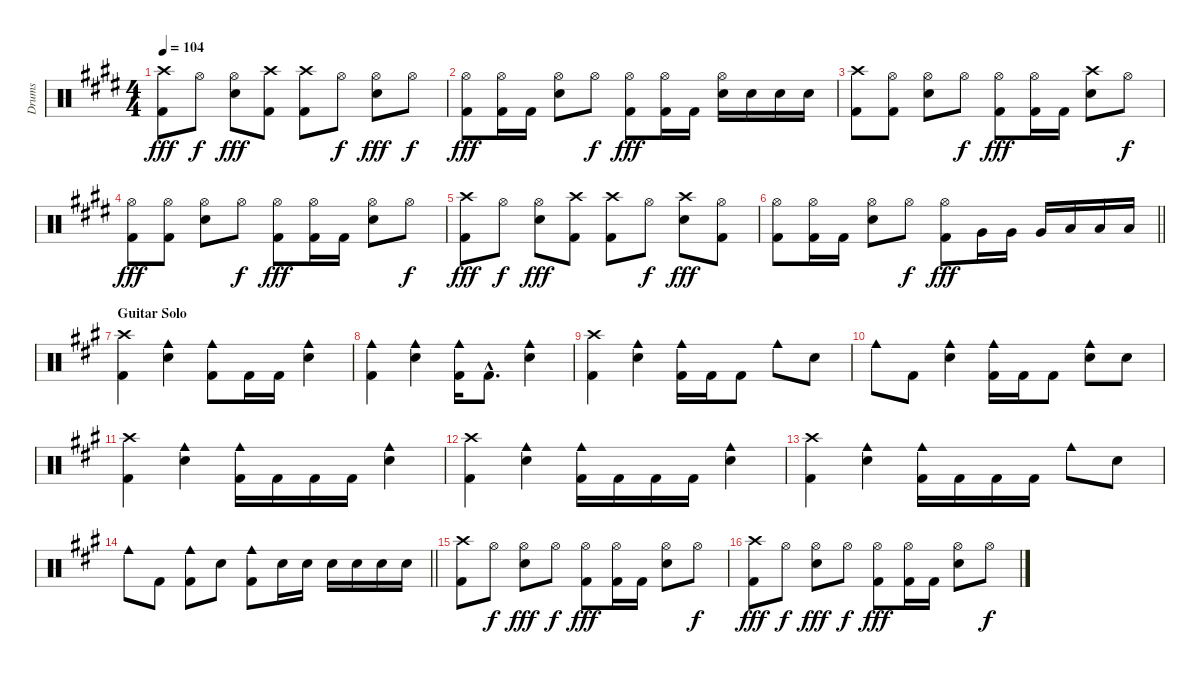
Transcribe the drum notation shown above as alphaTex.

\track ("Drums" "Drums") {instrument percussion}
\staff {score}
\articulation defaults
\ts (4 4)
\tempo 104
\clef neutral
\ks e
("Crash high (hit)" "Kick (hit) 2").8{dy fff} "Hi-Hat (open)".8{dy f} ("Hi-Hat (open)" "Snare (hit) 2").8{dy fff} ("Crash high (hit)" "Kick (hit) 2").8 ("Crash high (hit)" "Kick (hit) 2").8 "Hi-Hat (open)".8{dy f} ("Hi-Hat (open)" "Snare (hit) 2").8{dy fff} "Hi-Hat (open)".8{dy f} |
("Hi-Hat (open)" "Kick (hit) 2").8{dy fff} ("Hi-Hat (open)" "Kick (hit) 2").16 "Kick (hit) 2".16 ("Hi-Hat (open)" "Snare (hit) 2").8 "Hi-Hat (open)".8{dy f} ("Hi-Hat (open)" "Kick (hit) 2").8{dy fff} ("Hi-Hat (open)" "Kick (hit) 2").16 "Kick (hit) 2".16 ("Hi-Hat (open)" "Snare (hit) 2").16 "Snare (hit) 2".16 "Snare (hit) 2".16 "Snare (hit) 2".16 |
("Crash high (hit)" "Kick (hit) 2").8 ("Hi-Hat (open)" "Kick (hit) 2").8 ("Hi-Hat (open)" "Snare (hit) 2").8 "Hi-Hat (open)".8{dy f} ("Hi-Hat (open)" "Kick (hit) 2").8{dy fff} ("Hi-Hat (open)" "Kick (hit) 2").16 "Kick (hit) 2".16 ("Crash high (hit)" "Snare (hit) 2").8 "Hi-Hat (open)".8{dy f} |
("Hi-Hat (open)" "Kick (hit) 2").8{dy fff} ("Hi-Hat (open)" "Kick (hit) 2").8 ("Hi-Hat (open)" "Snare (hit) 2").8 "Hi-Hat (open)".8{dy f} ("Hi-Hat (open)" "Kick (hit) 2").8{dy fff} ("Hi-Hat (open)" "Kick (hit) 2").16 "Kick (hit) 2".16 ("Hi-Hat (open)" "Snare (hit) 2").8 "Hi-Hat (open)".8{dy f} |
("Crash high (hit)" "Kick (hit) 2").8{dy fff} "Hi-Hat (open)".8{dy f} ("Hi-Hat (open)" "Snare (hit) 2").8{dy fff} ("Crash high (hit)" "Kick (hit) 2").8 ("Crash high (hit)" "Kick (hit) 2").8 "Hi-Hat (open)".8{dy f} ("Crash high (hit)" "Snare (hit) 2").8{dy fff} ("Hi-Hat (open)" "Kick (hit) 2").8 |
\barLineRight lightlight
("Hi-Hat (open)" "Kick (hit) 2").8 ("Hi-Hat (open)" "Kick (hit) 2").16 "Kick (hit) 2".16 ("Hi-Hat (open)" "Snare (hit) 2").8 "Hi-Hat (open)".8{dy f} ("Hi-Hat (open)" "Kick (hit) 2").8{dy fff} "Very Low Tom (hit)".16 "Very Low Tom (hit)".16 "Very Low Tom (hit)".16 "Low Floor Tom (hit)".16 "Low Floor Tom (hit)".16 "Low Floor Tom (hit)".16 |
\section ("" "Guitar Solo")
\ks a
("Crash high (hit)" "Kick (hit) 2").4 ("Cowbell medium (hit)" "Snare (hit) 2").4 ("Cowbell medium (hit)" "Kick (hit) 2").8 "Kick (hit) 2".16 "Kick (hit) 2".16 ("Cowbell medium (hit)" "Snare (hit) 2").4 |
("Cowbell medium (hit)" "Kick (hit) 2").4 ("Cowbell medium (hit)" "Snare (hit) 2").4 ("Cowbell medium (hit)" "Kick (hit) 2").16 "Kick (hit) 2"{hac}.8{d} ("Cowbell medium (hit)" "Snare (hit) 2").4 |
("Crash high (hit)" "Kick (hit) 2").4 ("Cowbell medium (hit)" "Snare (hit) 2").4 ("Cowbell medium (hit)" "Kick (hit) 2").16 "Kick (hit) 2".16 "Kick (hit) 2".8 "Cowbell medium (hit)".8 "Snare (hit) 2".8 |
"Cowbell medium (hit)".8 "Kick (hit) 2".8 ("Cowbell medium (hit)" "Snare (hit) 2").4 ("Cowbell medium (hit)" "Kick (hit) 2").16 "Kick (hit) 2".16 "Kick (hit) 2".8 ("Cowbell medium (hit)" "Snare (hit) 2").8 "Snare (hit) 2".8 |
("Crash high (hit)" "Kick (hit) 2").4 ("Cowbell medium (hit)" "Snare (hit) 2").4 ("Cowbell medium (hit)" "Kick (hit) 2").16 "Kick (hit) 2".16 "Kick (hit) 2".16 "Kick (hit) 2".16 ("Cowbell medium (hit)" "Snare (hit) 2").4 |
("Crash high (hit)" "Kick (hit) 2").4 ("Cowbell medium (hit)" "Snare (hit) 2").4 ("Cowbell medium (hit)" "Kick (hit) 2").16 "Kick (hit) 2".16 "Kick (hit) 2".16 "Kick (hit) 2".16 ("Cowbell medium (hit)" "Snare (hit) 2").4 |
("Crash high (hit)" "Kick (hit) 2").4 ("Cowbell medium (hit)" "Snare (hit) 2").4 ("Cowbell medium (hit)" "Kick (hit) 2").16 "Kick (hit) 2".16 "Kick (hit) 2".16 "Kick (hit) 2".16 "Cowbell medium (hit)".8 "Snare (hit) 2".8 |
\barLineRight lightlight "Cowbell medium (hit)".8 "Kick (hit) 2".8
("Cowbell medium (hit)" "Kick (hit) 2").8 "Snare (hit) 2".8 ("Cowbell medium (hit)" "Kick (hit) 2").8 "Snare (hit) 2".16 "Snare (hit) 2".16 "Snare (hit) 2".16 "Snare (hit) 2".16 "Snare (hit) 2".16 "Snare (hit) 2".16 |
("Crash high (hit)" "Kick (hit) 2").8 "Hi-Hat (open)".8{dy f} ("Hi-Hat (open)" "Snare (hit) 2").8{dy fff} "Hi-Hat (open)".8{dy f} ("Hi-Hat (open)" "Kick (hit) 2").8{dy fff} ("Hi-Hat (open)" "Kick (hit) 2").16 "Kick (hit) 2".16 ("Hi-Hat (open)" "Snare (hit) 2").8 "Hi-Hat (open)".8{dy f} |
("Crash high (hit)" "Kick (hit) 2").8{dy fff} "Hi-Hat (open)".8{dy f} ("Hi-Hat (open)" "Snare (hit) 2").8{dy fff} "Hi-Hat (open)".8{dy f} ("Hi-Hat (open)" "Kick (hit) 2").8{dy fff} ("Hi-Hat (open)" "Kick (hit) 2").16 "Kick (hit) 2".16 ("Hi-Hat (open)" "Snare (hit) 2").8 "Hi-Hat (open)".8{dy f}
